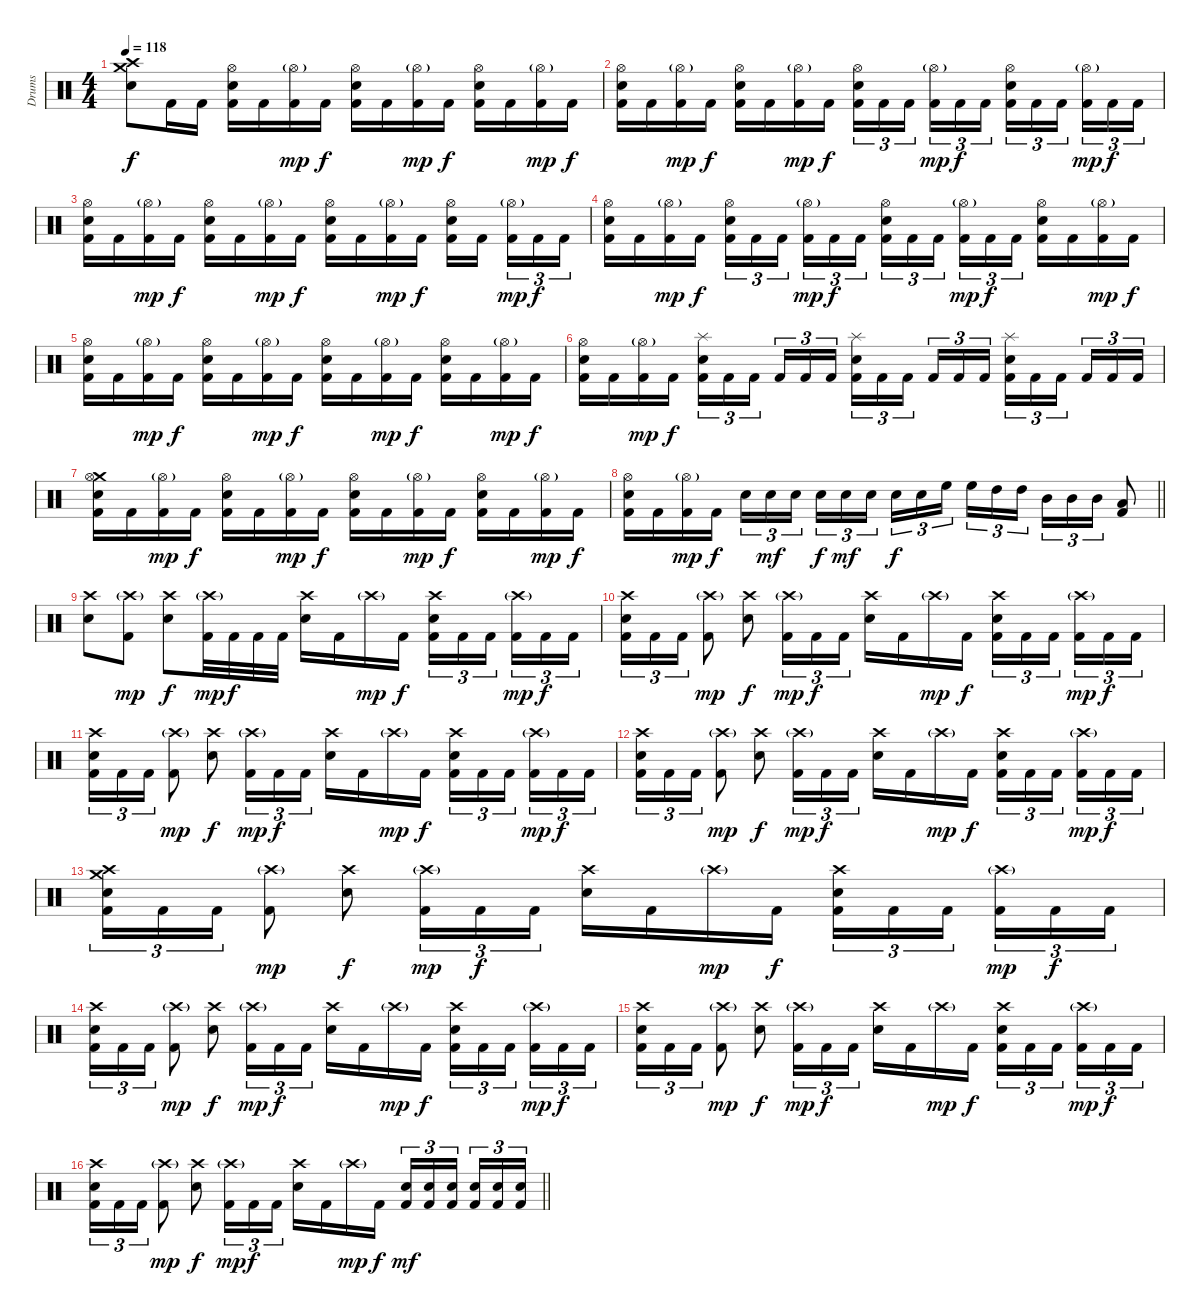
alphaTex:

\track ("Drums" "Drums") {instrument percussion}
\staff {score}
\articulation defaults
\ts (4 4)
\tempo 118
\clef neutral
\ks c
("Crash high (hit)" "Crash medium (hit)" "Electric Snare (hit)").8{dy f} "Kick (hit) 2".16 "Kick (hit) 2".16 ("Hi-Hat (open)" "Electric Snare (hit)" "Kick (hit) 2").16 "Kick (hit) 2".16 ("Hi-Hat (open)"{g} "Kick (hit) 2").16{dy mp} "Kick (hit) 2".16{dy f} ("Hi-Hat (open)" "Electric Snare (hit)" "Kick (hit) 2").16 "Kick (hit) 2".16 ("Hi-Hat (open)"{g} "Kick (hit) 2").16{dy mp} "Kick (hit) 2".16{dy f} ("Hi-Hat (open)" "Electric Snare (hit)" "Kick (hit) 2").16 "Kick (hit) 2".16 ("Hi-Hat (open)"{g} "Kick (hit) 2").16{dy mp} "Kick (hit) 2".16{dy f} |
("Hi-Hat (open)" "Electric Snare (hit)" "Kick (hit) 2").16 "Kick (hit) 2".16 ("Hi-Hat (open)"{g} "Kick (hit) 2").16{dy mp} "Kick (hit) 2".16{dy f} ("Hi-Hat (open)" "Electric Snare (hit)" "Kick (hit) 2").16 "Kick (hit) 2".16 ("Hi-Hat (open)"{g} "Kick (hit) 2").16{dy mp} "Kick (hit) 2".16{dy f} ("Hi-Hat (open)" "Electric Snare (hit)" "Kick (hit) 2").16{tu (3 2)} "Kick (hit) 2".16{tu (3 2)} "Kick (hit) 2".16{tu (3 2)} ("Hi-Hat (open)"{g} "Kick (hit) 2").16{tu (3 2) dy mp} "Kick (hit) 2".16{tu (3 2) dy f} "Kick (hit) 2".16{tu (3 2)} ("Hi-Hat (open)" "Electric Snare (hit)" "Kick (hit) 2").16{tu (3 2)} "Kick (hit) 2".16{tu (3 2)} "Kick (hit) 2".16{tu (3 2)} ("Hi-Hat (open)"{g} "Kick (hit) 2").16{tu (3 2) dy mp} "Kick (hit) 2".16{tu (3 2) dy f} "Kick (hit) 2".16{tu (3 2)} |
("Hi-Hat (open)" "Electric Snare (hit)" "Kick (hit) 2").16 "Kick (hit) 2".16 ("Hi-Hat (open)"{g} "Kick (hit) 2").16{dy mp} "Kick (hit) 2".16{dy f} ("Hi-Hat (open)" "Electric Snare (hit)" "Kick (hit) 2").16 "Kick (hit) 2".16 ("Hi-Hat (open)"{g} "Kick (hit) 2").16{dy mp} "Kick (hit) 2".16{dy f} ("Hi-Hat (open)" "Electric Snare (hit)" "Kick (hit) 2").16 "Kick (hit) 2".16 ("Hi-Hat (open)"{g} "Kick (hit) 2").16{dy mp} "Kick (hit) 2".16{dy f} ("Hi-Hat (open)" "Electric Snare (hit)" "Kick (hit) 2").16 "Kick (hit) 2".16 ("Hi-Hat (open)"{g} "Kick (hit) 2").16{tu (3 2) dy mp} "Kick (hit) 2".16{tu (3 2) dy f} "Kick (hit) 2".16{tu (3 2)} |
("Hi-Hat (open)" "Electric Snare (hit)" "Kick (hit) 2").16 "Kick (hit) 2".16 ("Hi-Hat (open)"{g} "Kick (hit) 2").16{dy mp} "Kick (hit) 2".16{dy f} ("Hi-Hat (open)" "Electric Snare (hit)" "Kick (hit) 2").16{tu (3 2)} "Kick (hit) 2".16{tu (3 2)} "Kick (hit) 2".16{tu (3 2)} ("Hi-Hat (open)"{g} "Kick (hit) 2").16{tu (3 2) dy mp} "Kick (hit) 2".16{tu (3 2) dy f} "Kick (hit) 2".16{tu (3 2)} ("Hi-Hat (open)" "Electric Snare (hit)" "Kick (hit) 2").16{tu (3 2)} "Kick (hit) 2".16{tu (3 2)} "Kick (hit) 2".16{tu (3 2)} ("Hi-Hat (open)"{g} "Kick (hit) 2").16{tu (3 2) dy mp} "Kick (hit) 2".16{tu (3 2) dy f} "Kick (hit) 2".16{tu (3 2)} ("Hi-Hat (open)" "Electric Snare (hit)" "Kick (hit) 2").16 "Kick (hit) 2".16 ("Hi-Hat (open)"{g} "Kick (hit) 2").16{dy mp} "Kick (hit) 2".16{dy f} |
("Hi-Hat (open)" "Electric Snare (hit)" "Kick (hit) 2").16 "Kick (hit) 2".16 ("Hi-Hat (open)"{g} "Kick (hit) 2").16{dy mp} "Kick (hit) 2".16{dy f} ("Hi-Hat (open)" "Electric Snare (hit)" "Kick (hit) 2").16 "Kick (hit) 2".16 ("Hi-Hat (open)"{g} "Kick (hit) 2").16{dy mp} "Kick (hit) 2".16{dy f} ("Hi-Hat (open)" "Electric Snare (hit)" "Kick (hit) 2").16 "Kick (hit) 2".16 ("Hi-Hat (open)"{g} "Kick (hit) 2").16{dy mp} "Kick (hit) 2".16{dy f} ("Hi-Hat (open)" "Electric Snare (hit)" "Kick (hit) 2").16 "Kick (hit) 2".16 ("Hi-Hat (open)"{g} "Kick (hit) 2").16{dy mp} "Kick (hit) 2".16{dy f} |
("Hi-Hat (open)" "Electric Snare (hit)" "Kick (hit) 2").16 "Kick (hit) 2".16 ("Hi-Hat (open)"{g} "Kick (hit) 2").16{dy mp} "Kick (hit) 2".16{dy f} ("Splash (hit)" "Electric Snare (hit)" "Kick (hit) 2").16{tu (3 2)} "Kick (hit) 2".16{tu (3 2)} "Kick (hit) 2".16{tu (3 2)} "Kick (hit) 2".16{tu (3 2)} "Kick (hit) 2".16{tu (3 2)} "Kick (hit) 2".16{tu (3 2)} ("Splash (hit)" "Electric Snare (hit)" "Kick (hit) 2").16{tu (3 2)} "Kick (hit) 2".16{tu (3 2)} "Kick (hit) 2".16{tu (3 2)} "Kick (hit) 2".16{tu (3 2)} "Kick (hit) 2".16{tu (3 2)} "Kick (hit) 2".16{tu (3 2)} ("Splash (hit)" "Electric Snare (hit)" "Kick (hit) 2").16{tu (3 2)} "Kick (hit) 2".16{tu (3 2)} "Kick (hit) 2".16{tu (3 2)} "Kick (hit) 2".16{tu (3 2)} "Kick (hit) 2".16{tu (3 2)} "Kick (hit) 2".16{tu (3 2)} |
("Crash medium (hit)" "Hi-Hat (open)" "Electric Snare (hit)" "Kick (hit) 2").16 "Kick (hit) 2".16 ("Hi-Hat (open)"{g} "Kick (hit) 2").16{dy mp} "Kick (hit) 2".16{dy f} ("Hi-Hat (open)" "Electric Snare (hit)" "Kick (hit) 2").16 "Kick (hit) 2".16 ("Hi-Hat (open)"{g} "Kick (hit) 2").16{dy mp} "Kick (hit) 2".16{dy f} ("Hi-Hat (open)" "Electric Snare (hit)" "Kick (hit) 2").16 "Kick (hit) 2".16 ("Hi-Hat (open)"{g} "Kick (hit) 2").16{dy mp} "Kick (hit) 2".16{dy f} ("Hi-Hat (open)" "Electric Snare (hit)" "Kick (hit) 2").16 "Kick (hit) 2".16 ("Hi-Hat (open)"{g} "Kick (hit) 2").16{dy mp} "Kick (hit) 2".16{dy f} |
\barLineRight lightlight
("Hi-Hat (open)" "Electric Snare (hit)" "Kick (hit) 2").16 "Kick (hit) 2".16 ("Hi-Hat (open)"{g} "Kick (hit) 2").16{dy mp} "Kick (hit) 2".16{dy f} "Electric Snare (hit)".16{tu (3 2)} "Electric Snare (hit)".16{tu (3 2) dy mf} "Electric Snare (hit)".16{tu (3 2)} "Electric Snare (hit)".16{tu (3 2) dy f} "Electric Snare (hit)".16{tu (3 2) dy mf} "Electric Snare (hit)".16{tu (3 2)} "Electric Snare (hit)".16{tu (3 2) dy f} "Electric Snare (hit)".16{tu (3 2)} "High Floor Tom (hit)".16{tu (3 2)} "High Floor Tom (hit)".16{tu (3 2)} "High Tom (hit)".16{tu (3 2)} "High Tom (hit)".16{tu (3 2)} "Mid Tom (hit)".16{tu (3 2)} "Mid Tom (hit)".16{tu (3 2)} "Mid Tom (hit)".16{tu (3 2)} ("Low Tom (hit)" "Kick (hit) 2").8 |
("Crash high (hit)" "Electric Snare (hit)").8 ("Crash high (hit)"{g} "Kick (hit) 2").8{dy mp} ("Crash high (hit)" "Electric Snare (hit)").8{dy f} ("Crash high (hit)"{g} "Kick (hit) 2").32{dy mp} "Kick (hit) 2".32{dy f} "Kick (hit) 2".32 "Kick (hit) 2".32 ("Crash high (hit)" "Electric Snare (hit)").16 "Kick (hit) 2".16 "Crash high (hit)"{g}.16{dy mp} "Kick (hit) 2".16{dy f} ("Crash high (hit)" "Electric Snare (hit)" "Kick (hit) 2").16{tu (3 2)} "Kick (hit) 2".16{tu (3 2)} "Kick (hit) 2".16{tu (3 2)} ("Crash high (hit)"{g} "Kick (hit) 2").16{tu (3 2) dy mp} "Kick (hit) 2".16{tu (3 2) dy f} "Kick (hit) 2".16{tu (3 2)} |
("Crash high (hit)" "Electric Snare (hit)" "Kick (hit) 2").16{tu (3 2)} "Kick (hit) 2".16{tu (3 2)} "Kick (hit) 2".16{tu (3 2)} ("Crash high (hit)"{g} "Kick (hit) 2").8{dy mp} ("Crash high (hit)" "Electric Snare (hit)").8{dy f} ("Crash high (hit)"{g} "Kick (hit) 2").16{tu (3 2) dy mp} "Kick (hit) 2".16{tu (3 2) dy f} "Kick (hit) 2".16{tu (3 2)} ("Crash high (hit)" "Electric Snare (hit)").16 "Kick (hit) 2".16 "Crash high (hit)"{g}.16{dy mp} "Kick (hit) 2".16{dy f} ("Crash high (hit)" "Electric Snare (hit)" "Kick (hit) 2").16{tu (3 2)} "Kick (hit) 2".16{tu (3 2)} "Kick (hit) 2".16{tu (3 2)} ("Crash high (hit)"{g} "Kick (hit) 2").16{tu (3 2) dy mp} "Kick (hit) 2".16{tu (3 2) dy f} "Kick (hit) 2".16{tu (3 2)} |
("Crash high (hit)" "Electric Snare (hit)" "Kick (hit) 2").16{tu (3 2)} "Kick (hit) 2".16{tu (3 2)} "Kick (hit) 2".16{tu (3 2)} ("Crash high (hit)"{g} "Kick (hit) 2").8{dy mp} ("Crash high (hit)" "Electric Snare (hit)").8{dy f} ("Crash high (hit)"{g} "Kick (hit) 2").16{tu (3 2) dy mp} "Kick (hit) 2".16{tu (3 2) dy f} "Kick (hit) 2".16{tu (3 2)} ("Crash high (hit)" "Electric Snare (hit)").16 "Kick (hit) 2".16 "Crash high (hit)"{g}.16{dy mp} "Kick (hit) 2".16{dy f} ("Crash high (hit)" "Electric Snare (hit)" "Kick (hit) 2").16{tu (3 2)} "Kick (hit) 2".16{tu (3 2)} "Kick (hit) 2".16{tu (3 2)} ("Crash high (hit)"{g} "Kick (hit) 2").16{tu (3 2) dy mp} "Kick (hit) 2".16{tu (3 2) dy f} "Kick (hit) 2".16{tu (3 2)} |
("Crash high (hit)" "Electric Snare (hit)" "Kick (hit) 2").16{tu (3 2)} "Kick (hit) 2".16{tu (3 2)} "Kick (hit) 2".16{tu (3 2)} ("Crash high (hit)"{g} "Kick (hit) 2").8{dy mp} ("Crash high (hit)" "Electric Snare (hit)").8{dy f} ("Crash high (hit)"{g} "Kick (hit) 2").16{tu (3 2) dy mp} "Kick (hit) 2".16{tu (3 2) dy f} "Kick (hit) 2".16{tu (3 2)} ("Crash high (hit)" "Electric Snare (hit)").16 "Kick (hit) 2".16 "Crash high (hit)"{g}.16{dy mp} "Kick (hit) 2".16{dy f} ("Crash high (hit)" "Electric Snare (hit)" "Kick (hit) 2").16{tu (3 2)} "Kick (hit) 2".16{tu (3 2)} "Kick (hit) 2".16{tu (3 2)} ("Crash high (hit)"{g} "Kick (hit) 2").16{tu (3 2) dy mp} "Kick (hit) 2".16{tu (3 2) dy f} "Kick (hit) 2".16{tu (3 2)} |
("Crash high (hit)" "Crash medium (hit)" "Electric Snare (hit)" "Kick (hit) 2").16{tu (3 2)} "Kick (hit) 2".16{tu (3 2)} "Kick (hit) 2".16{tu (3 2)} ("Crash high (hit)"{g} "Kick (hit) 2").8{dy mp} ("Crash high (hit)" "Electric Snare (hit)").8{dy f} ("Crash high (hit)"{g} "Kick (hit) 2").16{tu (3 2) dy mp} "Kick (hit) 2".16{tu (3 2) dy f} "Kick (hit) 2".16{tu (3 2)} ("Crash high (hit)" "Electric Snare (hit)").16 "Kick (hit) 2".16 "Crash high (hit)"{g}.16{dy mp} "Kick (hit) 2".16{dy f} ("Crash high (hit)" "Electric Snare (hit)" "Kick (hit) 2").16{tu (3 2)} "Kick (hit) 2".16{tu (3 2)} "Kick (hit) 2".16{tu (3 2)} ("Crash high (hit)"{g} "Kick (hit) 2").16{tu (3 2) dy mp} "Kick (hit) 2".16{tu (3 2) dy f} "Kick (hit) 2".16{tu (3 2)} |
("Crash high (hit)" "Electric Snare (hit)" "Kick (hit) 2").16{tu (3 2)} "Kick (hit) 2".16{tu (3 2)} "Kick (hit) 2".16{tu (3 2)} ("Crash high (hit)"{g} "Kick (hit) 2").8{dy mp} ("Crash high (hit)" "Electric Snare (hit)").8{dy f} ("Crash high (hit)"{g} "Kick (hit) 2").16{tu (3 2) dy mp} "Kick (hit) 2".16{tu (3 2) dy f} "Kick (hit) 2".16{tu (3 2)} ("Crash high (hit)" "Electric Snare (hit)").16 "Kick (hit) 2".16 "Crash high (hit)"{g}.16{dy mp} "Kick (hit) 2".16{dy f} ("Crash high (hit)" "Electric Snare (hit)" "Kick (hit) 2").16{tu (3 2)} "Kick (hit) 2".16{tu (3 2)} "Kick (hit) 2".16{tu (3 2)} ("Crash high (hit)"{g} "Kick (hit) 2").16{tu (3 2) dy mp} "Kick (hit) 2".16{tu (3 2) dy f} "Kick (hit) 2".16{tu (3 2)} |
("Crash high (hit)" "Electric Snare (hit)" "Kick (hit) 2").16{tu (3 2)} "Kick (hit) 2".16{tu (3 2)} "Kick (hit) 2".16{tu (3 2)} ("Crash high (hit)"{g} "Kick (hit) 2").8{dy mp} ("Crash high (hit)" "Electric Snare (hit)").8{dy f} ("Crash high (hit)"{g} "Kick (hit) 2").16{tu (3 2) dy mp} "Kick (hit) 2".16{tu (3 2) dy f} "Kick (hit) 2".16{tu (3 2)} ("Crash high (hit)" "Electric Snare (hit)").16 "Kick (hit) 2".16 "Crash high (hit)"{g}.16{dy mp} "Kick (hit) 2".16{dy f} ("Crash high (hit)" "Electric Snare (hit)" "Kick (hit) 2").16{tu (3 2)} "Kick (hit) 2".16{tu (3 2)} "Kick (hit) 2".16{tu (3 2)} ("Crash high (hit)"{g} "Kick (hit) 2").16{tu (3 2) dy mp} "Kick (hit) 2".16{tu (3 2) dy f} "Kick (hit) 2".16{tu (3 2)} |
\barLineRight lightlight
("Crash high (hit)" "Electric Snare (hit)" "Kick (hit) 2").16{tu (3 2)} "Kick (hit) 2".16{tu (3 2)} "Kick (hit) 2".16{tu (3 2)} ("Crash high (hit)"{g} "Kick (hit) 2").8{dy mp} ("Crash high (hit)" "Electric Snare (hit)").8{dy f} ("Crash high (hit)"{g} "Kick (hit) 2").16{tu (3 2) dy mp} "Kick (hit) 2".16{tu (3 2) dy f} "Kick (hit) 2".16{tu (3 2)} ("Crash high (hit)" "Electric Snare (hit)").16 "Kick (hit) 2".16 "Crash high (hit)"{g}.16{dy mp} "Kick (hit) 2".16{dy f} ("Electric Snare (hit)" "Kick (hit) 2").16{tu (3 2) dy mf} ("Electric Snare (hit)" "Kick (hit) 2").16{tu (3 2)} ("Electric Snare (hit)" "Kick (hit) 2").16{tu (3 2)} ("Electric Snare (hit)" "Kick (hit) 2").16{tu (3 2)} ("Electric Snare (hit)" "Kick (hit) 2").16{tu (3 2)} ("Electric Snare (hit)" "Kick (hit) 2").16{tu (3 2)}
